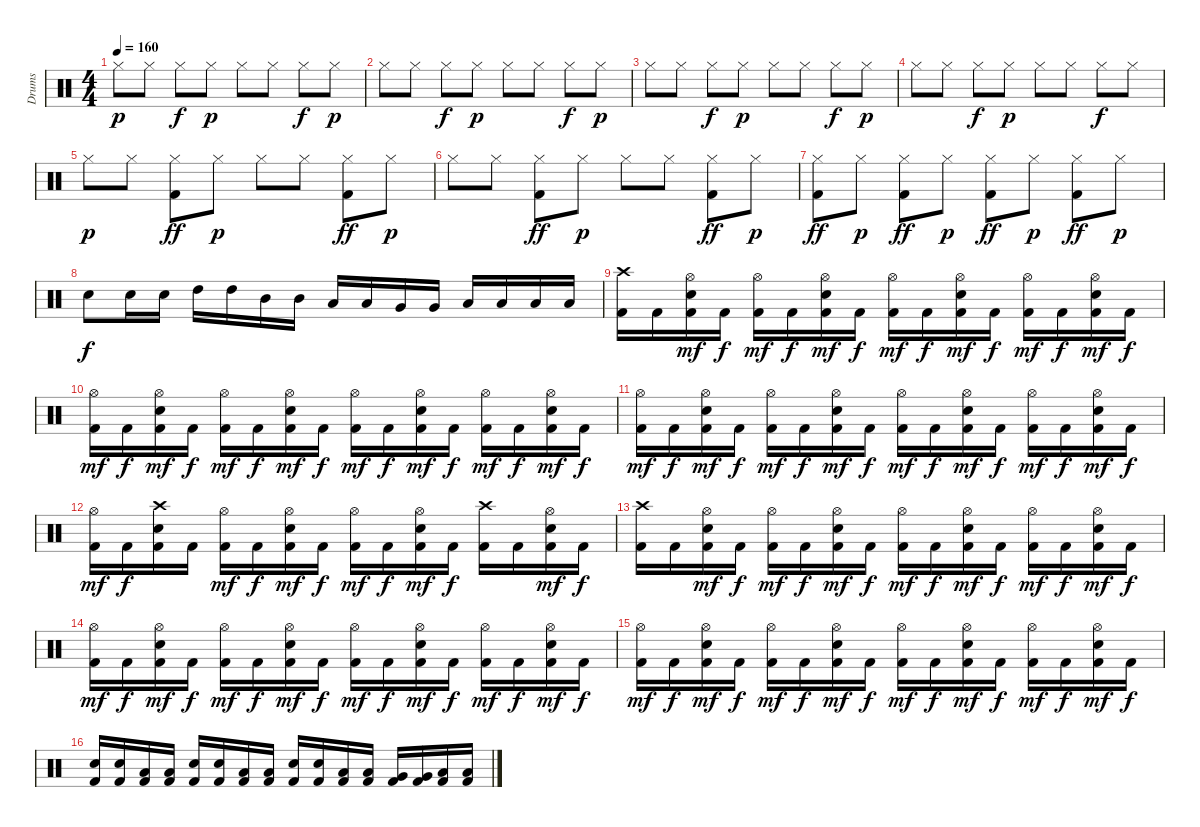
\track ("Drums" "Drums") {instrument percussion}
\staff {score}
\articulation defaults
\ts (4 4)
\tempo 160
\clef neutral
\ks c "Hi-Hat (closed)".8{dy p} "Hi-Hat (closed)".8 "Hi-Hat (closed)".8{dy f} "Hi-Hat (closed)".8{dy p} "Hi-Hat (closed)".8 "Hi-Hat (closed)".8 "Hi-Hat (closed)".8{dy f} "Hi-Hat (closed)".8{dy p}
|
"Hi-Hat (closed)".8 "Hi-Hat (closed)".8 "Hi-Hat (closed)".8{dy f} "Hi-Hat (closed)".8{dy p} "Hi-Hat (closed)".8 "Hi-Hat (closed)".8 "Hi-Hat (closed)".8{dy f} "Hi-Hat (closed)".8{dy p} |
"Hi-Hat (closed)".8 "Hi-Hat (closed)".8 "Hi-Hat (closed)".8{dy f} "Hi-Hat (closed)".8{dy p} "Hi-Hat (closed)".8 "Hi-Hat (closed)".8 "Hi-Hat (closed)".8{dy f} "Hi-Hat (closed)".8{dy p} |
"Hi-Hat (closed)".8 "Hi-Hat (closed)".8 "Hi-Hat (closed)".8{dy f} "Hi-Hat (closed)".8{dy p} "Hi-Hat (closed)".8 "Hi-Hat (closed)".8 "Hi-Hat (closed)".8{dy f} "Hi-Hat (closed)".8 |
"Hi-Hat (closed)".8{dy p} "Hi-Hat (closed)".8 ("Hi-Hat (closed)" "Kick (hit) 2").8{dy ff} "Hi-Hat (closed)".8{dy p} "Hi-Hat (closed)".8 "Hi-Hat (closed)".8 ("Hi-Hat (closed)" "Kick (hit) 2").8{dy ff} "Hi-Hat (closed)".8{dy p} |
"Hi-Hat (closed)".8 "Hi-Hat (closed)".8 ("Hi-Hat (closed)" "Kick (hit) 2").8{dy ff} "Hi-Hat (closed)".8{dy p} "Hi-Hat (closed)".8 "Hi-Hat (closed)".8 ("Hi-Hat (closed)" "Kick (hit) 2").8{dy ff} "Hi-Hat (closed)".8{dy p} |
("Hi-Hat (closed)" "Kick (hit) 2").8{dy ff} "Hi-Hat (closed)".8{dy p} ("Hi-Hat (closed)" "Kick (hit) 2").8{dy ff} "Hi-Hat (closed)".8{dy p} ("Hi-Hat (closed)" "Kick (hit) 2").8{dy ff} "Hi-Hat (closed)".8{dy p} ("Hi-Hat (closed)" "Kick (hit) 2").8{dy ff} "Hi-Hat (closed)".8{dy p} |
"Electric Snare (hit)".8{dy f} "Electric Snare (hit)".16 "Electric Snare (hit)".16 "High Tom (hit)".16 "High Tom (hit)".16 "Mid Tom (hit)".16 "Mid Tom (hit)".16 "Low Tom (hit)".16 "Low Tom (hit)".16 "Very Low Tom (hit)".16 "Very Low Tom (hit)".16 "Low Floor Tom (hit)".16 "Low Floor Tom (hit)".16 "Low Floor Tom (hit)".16 "Low Floor Tom (hit)".16 |
("Crash high (hit)" "Kick (hit) 2").16 "Kick (hit) 2".16 ("Hi-Hat (open)" "Electric Snare (hit)" "Kick (hit) 2").16{dy mf} "Kick (hit) 2".16{dy f} ("Hi-Hat (open)" "Kick (hit) 2").16{dy mf} "Kick (hit) 2".16{dy f} ("Hi-Hat (open)" "Electric Snare (hit)" "Kick (hit) 2").16{dy mf} "Kick (hit) 2".16{dy f} ("Hi-Hat (open)" "Kick (hit) 2").16{dy mf} "Kick (hit) 2".16{dy f} ("Hi-Hat (open)" "Electric Snare (hit)" "Kick (hit) 2").16{dy mf} "Kick (hit) 2".16{dy f} ("Hi-Hat (open)" "Kick (hit) 2").16{dy mf} "Kick (hit) 2".16{dy f} ("Hi-Hat (open)" "Electric Snare (hit)" "Kick (hit) 2").16{dy mf} "Kick (hit) 2".16{dy f} |
("Hi-Hat (open)" "Kick (hit) 2").16{dy mf} "Kick (hit) 2".16{dy f} ("Hi-Hat (open)" "Electric Snare (hit)" "Kick (hit) 2").16{dy mf} "Kick (hit) 2".16{dy f} ("Hi-Hat (open)" "Kick (hit) 2").16{dy mf} "Kick (hit) 2".16{dy f} ("Hi-Hat (open)" "Electric Snare (hit)" "Kick (hit) 2").16{dy mf} "Kick (hit) 2".16{dy f} ("Hi-Hat (open)" "Kick (hit) 2").16{dy mf} "Kick (hit) 2".16{dy f} ("Hi-Hat (open)" "Electric Snare (hit)" "Kick (hit) 2").16{dy mf} "Kick (hit) 2".16{dy f} ("Hi-Hat (open)" "Kick (hit) 2").16{dy mf} "Kick (hit) 2".16{dy f} ("Hi-Hat (open)" "Electric Snare (hit)" "Kick (hit) 2").16{dy mf} "Kick (hit) 2".16{dy f} |
("Hi-Hat (open)" "Kick (hit) 2").16{dy mf} "Kick (hit) 2".16{dy f} ("Hi-Hat (open)" "Electric Snare (hit)" "Kick (hit) 2").16{dy mf} "Kick (hit) 2".16{dy f} ("Hi-Hat (open)" "Kick (hit) 2").16{dy mf} "Kick (hit) 2".16{dy f} ("Hi-Hat (open)" "Electric Snare (hit)" "Kick (hit) 2").16{dy mf} "Kick (hit) 2".16{dy f} ("Hi-Hat (open)" "Kick (hit) 2").16{dy mf} "Kick (hit) 2".16{dy f} ("Hi-Hat (open)" "Electric Snare (hit)" "Kick (hit) 2").16{dy mf} "Kick (hit) 2".16{dy f} ("Hi-Hat (open)" "Kick (hit) 2").16{dy mf} "Kick (hit) 2".16{dy f} ("Hi-Hat (open)" "Electric Snare (hit)" "Kick (hit) 2").16{dy mf} "Kick (hit) 2".16{dy f} |
("Hi-Hat (open)" "Kick (hit) 2").16{dy mf} "Kick (hit) 2".16{dy f} ("Crash high (hit)" "Electric Snare (hit)" "Kick (hit) 2").16 "Kick (hit) 2".16 ("Hi-Hat (open)" "Kick (hit) 2").16{dy mf} "Kick (hit) 2".16{dy f} ("Hi-Hat (open)" "Electric Snare (hit)" "Kick (hit) 2").16{dy mf} "Kick (hit) 2".16{dy f} ("Hi-Hat (open)" "Kick (hit) 2").16{dy mf} "Kick (hit) 2".16{dy f} ("Hi-Hat (open)" "Electric Snare (hit)" "Kick (hit) 2").16{dy mf} "Kick (hit) 2".16{dy f} ("Crash high (hit)" "Kick (hit) 2").16 "Kick (hit) 2".16 ("Hi-Hat (open)" "Electric Snare (hit)" "Kick (hit) 2").16{dy mf} "Kick (hit) 2".16{dy f} |
("Crash high (hit)" "Kick (hit) 2").16 "Kick (hit) 2".16 ("Hi-Hat (open)" "Electric Snare (hit)" "Kick (hit) 2").16{dy mf} "Kick (hit) 2".16{dy f} ("Hi-Hat (open)" "Kick (hit) 2").16{dy mf} "Kick (hit) 2".16{dy f} ("Hi-Hat (open)" "Electric Snare (hit)" "Kick (hit) 2").16{dy mf} "Kick (hit) 2".16{dy f} ("Hi-Hat (open)" "Kick (hit) 2").16{dy mf} "Kick (hit) 2".16{dy f} ("Hi-Hat (open)" "Electric Snare (hit)" "Kick (hit) 2").16{dy mf} "Kick (hit) 2".16{dy f} ("Hi-Hat (open)" "Kick (hit) 2").16{dy mf} "Kick (hit) 2".16{dy f} ("Hi-Hat (open)" "Electric Snare (hit)" "Kick (hit) 2").16{dy mf} "Kick (hit) 2".16{dy f} |
("Hi-Hat (open)" "Kick (hit) 2").16{dy mf} "Kick (hit) 2".16{dy f} ("Hi-Hat (open)" "Electric Snare (hit)" "Kick (hit) 2").16{dy mf} "Kick (hit) 2".16{dy f} ("Hi-Hat (open)" "Kick (hit) 2").16{dy mf} "Kick (hit) 2".16{dy f} ("Hi-Hat (open)" "Electric Snare (hit)" "Kick (hit) 2").16{dy mf} "Kick (hit) 2".16{dy f} ("Hi-Hat (open)" "Kick (hit) 2").16{dy mf} "Kick (hit) 2".16{dy f} ("Hi-Hat (open)" "Electric Snare (hit)" "Kick (hit) 2").16{dy mf} "Kick (hit) 2".16{dy f} ("Hi-Hat (open)" "Kick (hit) 2").16{dy mf} "Kick (hit) 2".16{dy f} ("Hi-Hat (open)" "Electric Snare (hit)" "Kick (hit) 2").16{dy mf} "Kick (hit) 2".16{dy f} |
("Hi-Hat (open)" "Kick (hit) 2").16{dy mf} "Kick (hit) 2".16{dy f} ("Hi-Hat (open)" "Electric Snare (hit)" "Kick (hit) 2").16{dy mf} "Kick (hit) 2".16{dy f} ("Hi-Hat (open)" "Kick (hit) 2").16{dy mf} "Kick (hit) 2".16{dy f} ("Hi-Hat (open)" "Electric Snare (hit)" "Kick (hit) 2").16{dy mf} "Kick (hit) 2".16{dy f} ("Hi-Hat (open)" "Kick (hit) 2").16{dy mf} "Kick (hit) 2".16{dy f} ("Hi-Hat (open)" "Electric Snare (hit)" "Kick (hit) 2").16{dy mf} "Kick (hit) 2".16{dy f} ("Hi-Hat (open)" "Kick (hit) 2").16{dy mf} "Kick (hit) 2".16{dy f} ("Hi-Hat (open)" "Electric Snare (hit)" "Kick (hit) 2").16{dy mf} "Kick (hit) 2".16{dy f} |
("Electric Snare (hit)" "Kick (hit) 2").16 ("Electric Snare (hit)" "Kick (hit) 2").16 ("Low Floor Tom (hit)" "Kick (hit) 2").16 ("Low Floor Tom (hit)" "Kick (hit) 2").16 ("Electric Snare (hit)" "Kick (hit) 2").16 ("Electric Snare (hit)" "Kick (hit) 2").16 ("Low Floor Tom (hit)" "Kick (hit) 2").16 ("Low Floor Tom (hit)" "Kick (hit) 2").16 ("Electric Snare (hit)" "Kick (hit) 2").16 ("Electric Snare (hit)" "Kick (hit) 2").16 ("Low Tom (hit)" "Kick (hit) 2").16 ("Low Tom (hit)" "Kick (hit) 2").16 ("Very Low Tom (hit)" "Kick (hit) 2").16 ("Very Low Tom (hit)" "Kick (hit) 2").16 ("Low Floor Tom (hit)" "Kick (hit) 2").16 ("Low Floor Tom (hit)" "Kick (hit) 2").16
